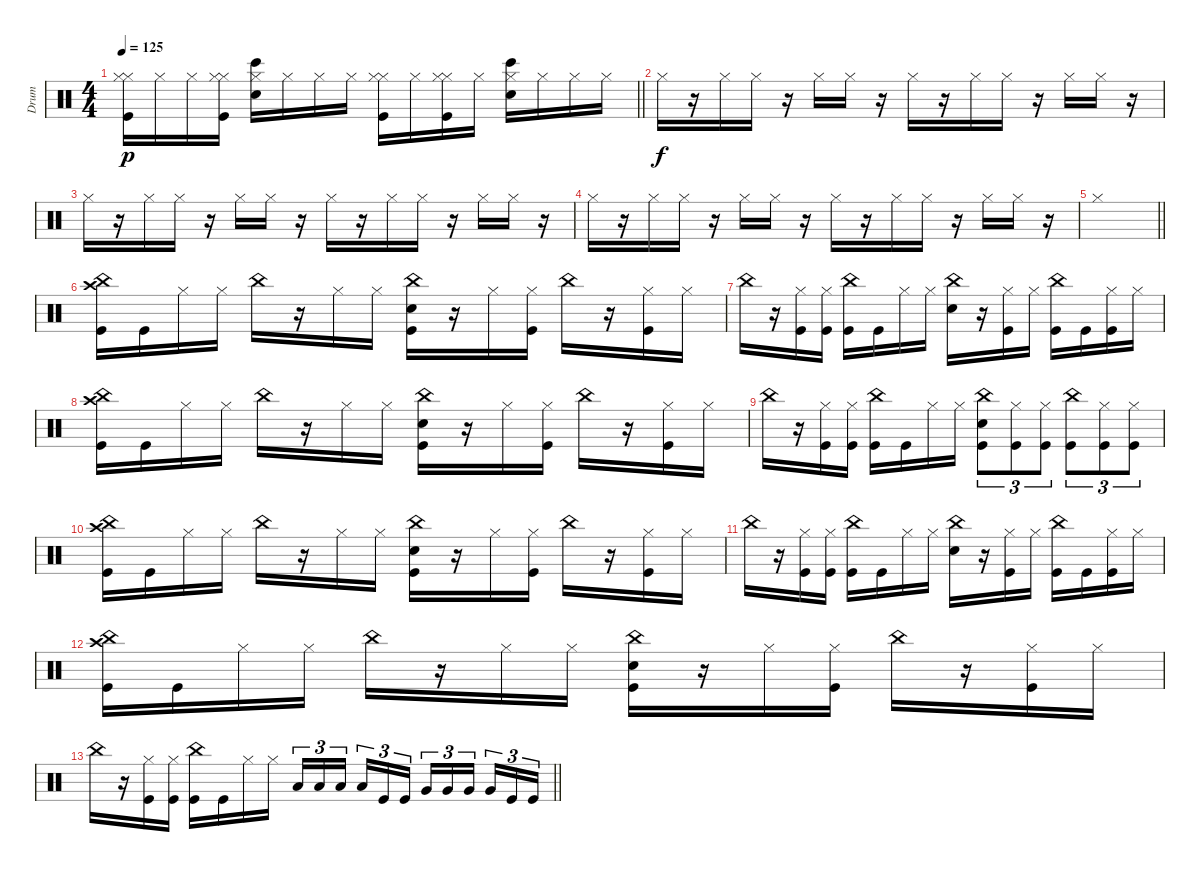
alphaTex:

\track ("Drum" "Drum") {instrument percussion}
\staff {score}
\articulation defaults
\ts (4 4)
\tempo 125
\clef neutral
\barLineRight lightlight
\ks c
("Hi-Hat (closed)" "Kick (hit)" "Hi-Hat (closed)").16{dy p} "Hi-Hat (closed)".16 "Hi-Hat (closed)".16 ("Hi-Hat (closed)" "Kick (hit)" "Hi-Hat (closed)").16 ("Snare (hit) 2" "Bongo High (hit)" "Hi-Hat (closed)").16 "Hi-Hat (closed)".16 "Hi-Hat (closed)".16 "Hi-Hat (closed)".16 ("Hi-Hat (closed)" "Kick (hit)" "Hi-Hat (closed)").16 "Hi-Hat (closed)".16 ("Hi-Hat (closed)" "Kick (hit)" "Hi-Hat (closed)").16 "Hi-Hat (closed)".16 ("Snare (hit) 2" "Bongo High (hit)" "Hi-Hat (closed)").16 "Hi-Hat (closed)".16 "Hi-Hat (closed)".16 "Hi-Hat (closed)".16 |
"Hi-Hat (closed)".16{dy f} r.16 "Hi-Hat (closed)".16 "Hi-Hat (closed)".16 r.16 "Hi-Hat (closed)".16 "Hi-Hat (closed)".16 r.16 "Hi-Hat (closed)".16 r.16 "Hi-Hat (closed)".16 "Hi-Hat (closed)".16 r.16 "Hi-Hat (closed)".16 "Hi-Hat (closed)".16 r.16 |
"Hi-Hat (closed)".16 r.16 "Hi-Hat (closed)".16 "Hi-Hat (closed)".16 r.16 "Hi-Hat (closed)".16 "Hi-Hat (closed)".16 r.16 "Hi-Hat (closed)".16 r.16 "Hi-Hat (closed)".16 "Hi-Hat (closed)".16 r.16 "Hi-Hat (closed)".16 "Hi-Hat (closed)".16 r.16 |
"Hi-Hat (closed)".16 r.16 "Hi-Hat (closed)".16 "Hi-Hat (closed)".16 r.16 "Hi-Hat (closed)".16 "Hi-Hat (closed)".16 r.16 "Hi-Hat (closed)".16 r.16 "Hi-Hat (closed)".16 "Hi-Hat (closed)".16 r.16 "Hi-Hat (closed)".16 "Hi-Hat (closed)".16 r.16 |
\barLineRight lightlight "Hi-Hat (closed)".1
|
("Kick (hit)" "Crash high (hit)" "China (hit)").16 "Kick (hit)".16 "Hi-Hat (closed)".16 "Hi-Hat (closed)".16 "China (hit)".16 r.16 "Hi-Hat (closed)".16 "Hi-Hat (closed)".16 ("Kick (hit)" "Snare (hit) 2" "China (hit)").16 r.16 "Hi-Hat (closed)".16 ("Kick (hit)" "Hi-Hat (closed)").16 "China (hit)".16 r.16 ("Kick (hit)" "Hi-Hat (closed)").16 "Hi-Hat (closed)".16 |
"China (hit)".16 r.16 ("Kick (hit)" "Hi-Hat (closed)").16 ("Kick (hit)" "Hi-Hat (closed)").16 ("Kick (hit)" "China (hit)").16 "Kick (hit)".16 "Hi-Hat (closed)".16 "Hi-Hat (closed)".16 ("Snare (hit) 2" "China (hit)").16 r.16 ("Kick (hit)" "Hi-Hat (closed)").16 "Hi-Hat (closed)".16 ("Kick (hit)" "China (hit)").16 "Kick (hit)".16 ("Kick (hit)" "Hi-Hat (closed)").16 "Hi-Hat (closed)".16 |
("Kick (hit)" "Crash high (hit)" "China (hit)").16 "Kick (hit)".16 "Hi-Hat (closed)".16 "Hi-Hat (closed)".16 "China (hit)".16 r.16 "Hi-Hat (closed)".16 "Hi-Hat (closed)".16 ("Kick (hit)" "Snare (hit) 2" "China (hit)").16 r.16 "Hi-Hat (closed)".16 ("Kick (hit)" "Hi-Hat (closed)").16 "China (hit)".16 r.16 ("Kick (hit)" "Hi-Hat (closed)").16 "Hi-Hat (closed)".16 |
"China (hit)".16 r.16 ("Kick (hit)" "Hi-Hat (closed)").16 ("Kick (hit)" "Hi-Hat (closed)").16 ("Kick (hit)" "China (hit)").16 "Kick (hit)".16 "Hi-Hat (closed)".16 "Hi-Hat (closed)".16 ("Kick (hit)" "Snare (hit) 2" "China (hit)").8{tu (3 2)} ("Kick (hit)" "Hi-Hat (closed)").8{tu (3 2)} ("Kick (hit)" "Hi-Hat (closed)").8{tu (3 2)} ("Kick (hit)" "China (hit)").8{tu (3 2)} ("Kick (hit)" "Hi-Hat (closed)").8{tu (3 2)} ("Kick (hit)" "Hi-Hat (closed)").8{tu (3 2)} |
("Kick (hit)" "Crash high (hit)" "China (hit)").16 "Kick (hit)".16 "Hi-Hat (closed)".16 "Hi-Hat (closed)".16 "China (hit)".16 r.16 "Hi-Hat (closed)".16 "Hi-Hat (closed)".16 ("Kick (hit)" "Snare (hit) 2" "China (hit)").16 r.16 "Hi-Hat (closed)".16 ("Kick (hit)" "Hi-Hat (closed)").16 "China (hit)".16 r.16 ("Kick (hit)" "Hi-Hat (closed)").16 "Hi-Hat (closed)".16 |
"China (hit)".16 r.16 ("Kick (hit)" "Hi-Hat (closed)").16 ("Kick (hit)" "Hi-Hat (closed)").16 ("Kick (hit)" "China (hit)").16 "Kick (hit)".16 "Hi-Hat (closed)".16 "Hi-Hat (closed)".16 ("Snare (hit) 2" "China (hit)").16 r.16 ("Kick (hit)" "Hi-Hat (closed)").16 "Hi-Hat (closed)".16 ("Kick (hit)" "China (hit)").16 "Kick (hit)".16 ("Kick (hit)" "Hi-Hat (closed)").16 "Hi-Hat (closed)".16 |
("Kick (hit)" "Crash high (hit)" "China (hit)").16 "Kick (hit)".16 "Hi-Hat (closed)".16 "Hi-Hat (closed)".16 "China (hit)".16 r.16 "Hi-Hat (closed)".16 "Hi-Hat (closed)".16 ("Kick (hit)" "Snare (hit) 2" "China (hit)").16 r.16 "Hi-Hat (closed)".16 ("Kick (hit)" "Hi-Hat (closed)").16 "China (hit)".16 r.16 ("Kick (hit)" "Hi-Hat (closed)").16 "Hi-Hat (closed)".16 |
\barLineRight lightlight "China (hit)".16
r.16 ("Kick (hit)" "Hi-Hat (closed)").16 ("Kick (hit)" "Hi-Hat (closed)").16 ("Kick (hit)" "China (hit)").16 "Kick (hit)".16 "Hi-Hat (closed)".16 "Hi-Hat (closed)".16 "Low Tom (hit)".16{tu (3 2)} "Low Tom (hit)".16{tu (3 2)} "Low Tom (hit)".16{tu (3 2) beam splitsecondary} "Low Tom (hit)".16{tu (3 2)} "Kick (hit)".16{tu (3 2)} "Kick (hit)".16{tu (3 2)} "Very Low Tom (hit)".16{tu (3 2)} "Very Low Tom (hit)".16{tu (3 2)} "Very Low Tom (hit)".16{tu (3 2) beam splitsecondary} "Very Low Tom (hit)".16{tu (3 2)} "Kick (hit)".16{tu (3 2)} "Kick (hit)".16{tu (3 2)}
